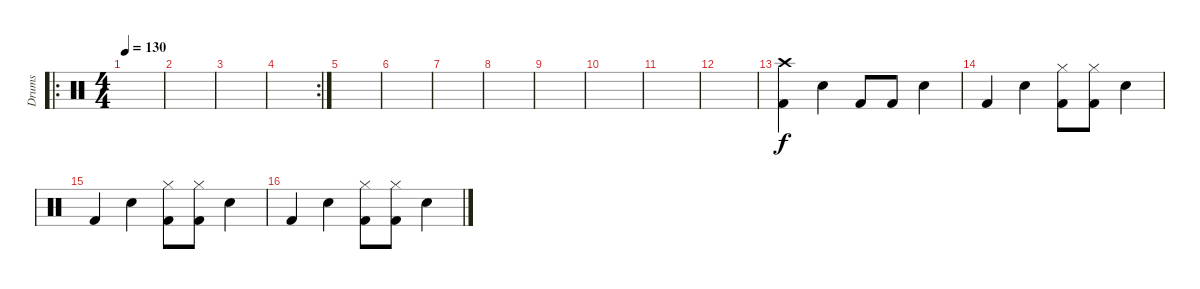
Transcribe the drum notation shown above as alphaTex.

\track ("Drums" "Drums") {instrument percussion}
\staff {score}
\articulation defaults
\ro
\ts (4 4)
\tempo 130
\clef neutral
\ks c
|
|
|
\rc 2
|
|
|
|
|
|
|
|
|
("Crash high (hit)" "Kick (hit) 2").4 "Electric Snare (hit)".4 "Kick (hit) 2".8 "Kick (hit) 2".8 "Electric Snare (hit)".4 |
"Kick (hit) 2".4 "Electric Snare (hit)".4 ("Kick (hit) 2" "Hi-Hat (closed)").8 ("Kick (hit) 2" "Hi-Hat (closed)").8 "Electric Snare (hit)".4 |
"Kick (hit) 2".4 "Electric Snare (hit)".4 ("Kick (hit) 2" "Hi-Hat (closed)").8 ("Kick (hit) 2" "Hi-Hat (closed)").8 "Electric Snare (hit)".4 |
"Kick (hit) 2".4 "Electric Snare (hit)".4 ("Kick (hit) 2" "Hi-Hat (closed)").8 ("Kick (hit) 2" "Hi-Hat (closed)").8 "Electric Snare (hit)".4
